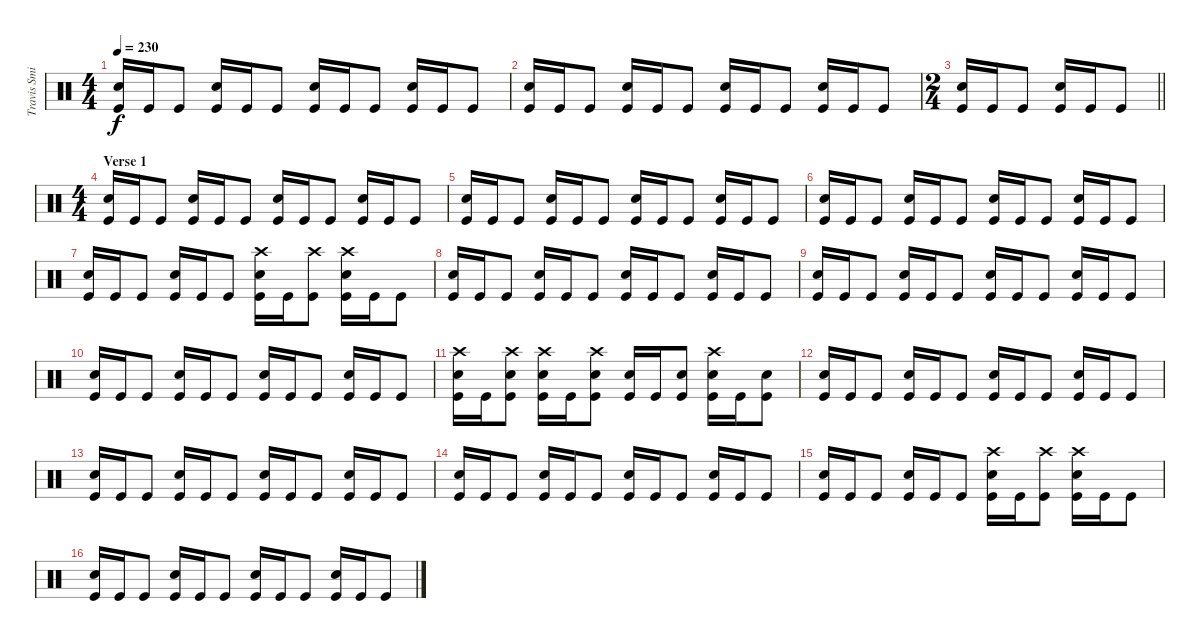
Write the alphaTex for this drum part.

\track ("Travis Smith" "Travis Smi") {instrument percussion}
\staff {score}
\articulation defaults
\ts (4 4)
\tempo 230
\clef neutral
\ks c
("Snare (hit) 2" "Kick (hit)").16{dy f} "Kick (hit)".16 "Kick (hit)".8 ("Snare (hit) 2" "Kick (hit)").16 "Kick (hit)".16 "Kick (hit)".8 ("Snare (hit) 2" "Kick (hit)").16 "Kick (hit)".16 "Kick (hit)".8 ("Snare (hit) 2" "Kick (hit)").16 "Kick (hit)".16 "Kick (hit)".8 |
("Snare (hit) 2" "Kick (hit)").16 "Kick (hit)".16 "Kick (hit)".8 ("Snare (hit) 2" "Kick (hit)").16 "Kick (hit)".16 "Kick (hit)".8 ("Snare (hit) 2" "Kick (hit)").16 "Kick (hit)".16 "Kick (hit)".8 ("Snare (hit) 2" "Kick (hit)").16 "Kick (hit)".16 "Kick (hit)".8 |
\ts (2 4)
\barLineRight lightlight
("Snare (hit) 2" "Kick (hit)").16 "Kick (hit)".16 "Kick (hit)".8 ("Snare (hit) 2" "Kick (hit)").16 "Kick (hit)".16 "Kick (hit)".8 |
\ts (4 4)
\section ("" "Verse 1")
("Snare (hit) 2" "Kick (hit)").16 "Kick (hit)".16 "Kick (hit)".8 ("Snare (hit) 2" "Kick (hit)").16 "Kick (hit)".16 "Kick (hit)".8 ("Snare (hit) 2" "Kick (hit)").16 "Kick (hit)".16 "Kick (hit)".8 ("Snare (hit) 2" "Kick (hit)").16 "Kick (hit)".16 "Kick (hit)".8 |
("Snare (hit) 2" "Kick (hit)").16 "Kick (hit)".16 "Kick (hit)".8 ("Snare (hit) 2" "Kick (hit)").16 "Kick (hit)".16 "Kick (hit)".8 ("Snare (hit) 2" "Kick (hit)").16 "Kick (hit)".16 "Kick (hit)".8 ("Snare (hit) 2" "Kick (hit)").16 "Kick (hit)".16 "Kick (hit)".8 |
("Snare (hit) 2" "Kick (hit)").16 "Kick (hit)".16 "Kick (hit)".8 ("Snare (hit) 2" "Kick (hit)").16 "Kick (hit)".16 "Kick (hit)".8 ("Snare (hit) 2" "Kick (hit)").16 "Kick (hit)".16 "Kick (hit)".8 ("Snare (hit) 2" "Kick (hit)").16 "Kick (hit)".16 "Kick (hit)".8 |
("Snare (hit) 2" "Kick (hit)").16 "Kick (hit)".16 "Kick (hit)".8 ("Snare (hit) 2" "Kick (hit)").16 "Kick (hit)".16 "Kick (hit)".8 ("Crash high (hit)" "Snare (hit) 2" "Kick (hit)").16 "Kick (hit)".16 ("Crash high (hit)" "Kick (hit)").8 ("Crash high (hit)" "Snare (hit) 2" "Kick (hit)").16 "Kick (hit)".16 "Kick (hit)".8 |
("Snare (hit) 2" "Kick (hit)").16 "Kick (hit)".16 "Kick (hit)".8 ("Snare (hit) 2" "Kick (hit)").16 "Kick (hit)".16 "Kick (hit)".8 ("Snare (hit) 2" "Kick (hit)").16 "Kick (hit)".16 "Kick (hit)".8 ("Snare (hit) 2" "Kick (hit)").16 "Kick (hit)".16 "Kick (hit)".8 |
("Snare (hit) 2" "Kick (hit)").16 "Kick (hit)".16 "Kick (hit)".8 ("Snare (hit) 2" "Kick (hit)").16 "Kick (hit)".16 "Kick (hit)".8 ("Snare (hit) 2" "Kick (hit)").16 "Kick (hit)".16 "Kick (hit)".8 ("Snare (hit) 2" "Kick (hit)").16 "Kick (hit)".16 "Kick (hit)".8 |
("Snare (hit) 2" "Kick (hit)").16 "Kick (hit)".16 "Kick (hit)".8 ("Snare (hit) 2" "Kick (hit)").16 "Kick (hit)".16 "Kick (hit)".8 ("Snare (hit) 2" "Kick (hit)").16 "Kick (hit)".16 "Kick (hit)".8 ("Snare (hit) 2" "Kick (hit)").16 "Kick (hit)".16 "Kick (hit)".8 |
("Crash high (hit)" "Snare (hit) 2" "Kick (hit)").16 "Kick (hit)".16 ("Crash high (hit)" "Snare (hit) 2" "Kick (hit)").8 ("Crash high (hit)" "Snare (hit) 2" "Kick (hit)").16 "Kick (hit)".16 ("Crash high (hit)" "Snare (hit) 2" "Kick (hit)").8 ("Snare (hit) 2" "Kick (hit)").16 "Kick (hit)".16 ("Snare (hit) 2" "Kick (hit)").8 ("Crash high (hit)" "Snare (hit) 2" "Kick (hit)").16 "Kick (hit)".16 ("Snare (hit) 2" "Kick (hit)").8 |
("Snare (hit) 2" "Kick (hit)").16 "Kick (hit)".16 "Kick (hit)".8 ("Snare (hit) 2" "Kick (hit)").16 "Kick (hit)".16 "Kick (hit)".8 ("Snare (hit) 2" "Kick (hit)").16 "Kick (hit)".16 "Kick (hit)".8 ("Snare (hit) 2" "Kick (hit)").16 "Kick (hit)".16 "Kick (hit)".8 |
("Snare (hit) 2" "Kick (hit)").16 "Kick (hit)".16 "Kick (hit)".8 ("Snare (hit) 2" "Kick (hit)").16 "Kick (hit)".16 "Kick (hit)".8 ("Snare (hit) 2" "Kick (hit)").16 "Kick (hit)".16 "Kick (hit)".8 ("Snare (hit) 2" "Kick (hit)").16 "Kick (hit)".16 "Kick (hit)".8 |
("Snare (hit) 2" "Kick (hit)").16 "Kick (hit)".16 "Kick (hit)".8 ("Snare (hit) 2" "Kick (hit)").16 "Kick (hit)".16 "Kick (hit)".8 ("Snare (hit) 2" "Kick (hit)").16 "Kick (hit)".16 "Kick (hit)".8 ("Snare (hit) 2" "Kick (hit)").16 "Kick (hit)".16 "Kick (hit)".8 |
("Snare (hit) 2" "Kick (hit)").16 "Kick (hit)".16 "Kick (hit)".8 ("Snare (hit) 2" "Kick (hit)").16 "Kick (hit)".16 "Kick (hit)".8 ("Crash high (hit)" "Snare (hit) 2" "Kick (hit)").16 "Kick (hit)".16 ("Crash high (hit)" "Kick (hit)").8 ("Crash high (hit)" "Snare (hit) 2" "Kick (hit)").16 "Kick (hit)".16 "Kick (hit)".8 |
("Snare (hit) 2" "Kick (hit)").16 "Kick (hit)".16 "Kick (hit)".8 ("Snare (hit) 2" "Kick (hit)").16 "Kick (hit)".16 "Kick (hit)".8 ("Snare (hit) 2" "Kick (hit)").16 "Kick (hit)".16 "Kick (hit)".8 ("Snare (hit) 2" "Kick (hit)").16 "Kick (hit)".16 "Kick (hit)".8
